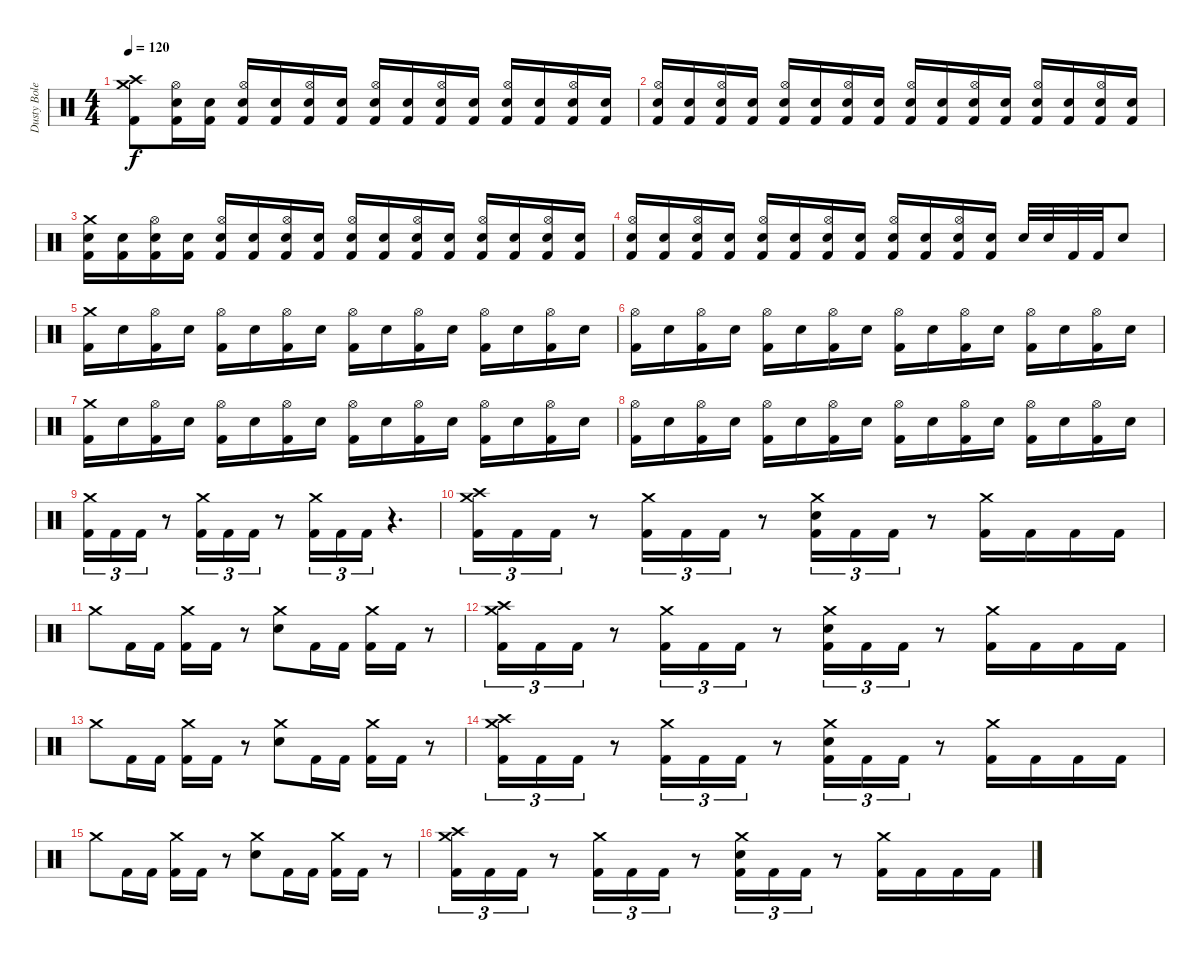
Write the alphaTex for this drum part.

\track ("Dusty Boles" "Dusty Bole") {instrument percussion}
\staff {score}
\articulation defaults
\ts (4 4)
\tempo 120
\clef neutral
\ks c
("Crash high (hit)" "Crash medium (hit)" "Kick (hit) 2").8{dy f} ("Hi-Hat (open)" "Electric Snare (hit)" "Kick (hit) 2").16 ("Electric Snare (hit)" "Kick (hit) 2").16 ("Hi-Hat (open)" "Electric Snare (hit)" "Kick (hit) 2").16 ("Electric Snare (hit)" "Kick (hit) 2").16 ("Hi-Hat (open)" "Electric Snare (hit)" "Kick (hit) 2").16 ("Electric Snare (hit)" "Kick (hit) 2").16 ("Hi-Hat (open)" "Electric Snare (hit)" "Kick (hit) 2").16 ("Electric Snare (hit)" "Kick (hit) 2").16 ("Hi-Hat (open)" "Electric Snare (hit)" "Kick (hit) 2").16 ("Electric Snare (hit)" "Kick (hit) 2").16 ("Hi-Hat (open)" "Electric Snare (hit)" "Kick (hit) 2").16 ("Electric Snare (hit)" "Kick (hit) 2").16 ("Hi-Hat (open)" "Electric Snare (hit)" "Kick (hit) 2").16 ("Electric Snare (hit)" "Kick (hit) 2").16 |
("Hi-Hat (open)" "Electric Snare (hit)" "Kick (hit) 2").16 ("Electric Snare (hit)" "Kick (hit) 2").16 ("Hi-Hat (open)" "Electric Snare (hit)" "Kick (hit) 2").16 ("Electric Snare (hit)" "Kick (hit) 2").16 ("Hi-Hat (open)" "Electric Snare (hit)" "Kick (hit) 2").16 ("Electric Snare (hit)" "Kick (hit) 2").16 ("Hi-Hat (open)" "Electric Snare (hit)" "Kick (hit) 2").16 ("Electric Snare (hit)" "Kick (hit) 2").16 ("Hi-Hat (open)" "Electric Snare (hit)" "Kick (hit) 2").16 ("Electric Snare (hit)" "Kick (hit) 2").16 ("Hi-Hat (open)" "Electric Snare (hit)" "Kick (hit) 2").16 ("Electric Snare (hit)" "Kick (hit) 2").16 ("Hi-Hat (open)" "Electric Snare (hit)" "Kick (hit) 2").16 ("Electric Snare (hit)" "Kick (hit) 2").16 ("Hi-Hat (open)" "Electric Snare (hit)" "Kick (hit) 2").16 ("Electric Snare (hit)" "Kick (hit) 2").16 |
("Crash medium (hit)" "Electric Snare (hit)" "Kick (hit) 2").16 ("Electric Snare (hit)" "Kick (hit) 2").16 ("Hi-Hat (open)" "Electric Snare (hit)" "Kick (hit) 2").16 ("Electric Snare (hit)" "Kick (hit) 2").16 ("Hi-Hat (open)" "Electric Snare (hit)" "Kick (hit) 2").16 ("Electric Snare (hit)" "Kick (hit) 2").16 ("Hi-Hat (open)" "Electric Snare (hit)" "Kick (hit) 2").16 ("Electric Snare (hit)" "Kick (hit) 2").16 ("Hi-Hat (open)" "Electric Snare (hit)" "Kick (hit) 2").16 ("Electric Snare (hit)" "Kick (hit) 2").16 ("Hi-Hat (open)" "Electric Snare (hit)" "Kick (hit) 2").16 ("Electric Snare (hit)" "Kick (hit) 2").16 ("Hi-Hat (open)" "Electric Snare (hit)" "Kick (hit) 2").16 ("Electric Snare (hit)" "Kick (hit) 2").16 ("Hi-Hat (open)" "Electric Snare (hit)" "Kick (hit) 2").16 ("Electric Snare (hit)" "Kick (hit) 2").16 |
("Hi-Hat (open)" "Electric Snare (hit)" "Kick (hit) 2").16 ("Electric Snare (hit)" "Kick (hit) 2").16 ("Hi-Hat (open)" "Electric Snare (hit)" "Kick (hit) 2").16 ("Electric Snare (hit)" "Kick (hit) 2").16 ("Hi-Hat (open)" "Electric Snare (hit)" "Kick (hit) 2").16 ("Electric Snare (hit)" "Kick (hit) 2").16 ("Hi-Hat (open)" "Electric Snare (hit)" "Kick (hit) 2").16 ("Electric Snare (hit)" "Kick (hit) 2").16 ("Hi-Hat (open)" "Electric Snare (hit)" "Kick (hit) 2").16 ("Electric Snare (hit)" "Kick (hit) 2").16 ("Hi-Hat (open)" "Electric Snare (hit)" "Kick (hit) 2").16 ("Electric Snare (hit)" "Kick (hit) 2").16 "Electric Snare (hit)".32 "Electric Snare (hit)".32 "Kick (hit) 2".32 "Kick (hit) 2".32 "Electric Snare (hit)".8 |
("Crash medium (hit)" "Kick (hit) 2").16 "Electric Snare (hit)".16 ("Hi-Hat (open)" "Kick (hit) 2").16 "Electric Snare (hit)".16 ("Hi-Hat (open)" "Kick (hit) 2").16 "Electric Snare (hit)".16 ("Hi-Hat (open)" "Kick (hit) 2").16 "Electric Snare (hit)".16 ("Hi-Hat (open)" "Kick (hit) 2").16 "Electric Snare (hit)".16 ("Hi-Hat (open)" "Kick (hit) 2").16 "Electric Snare (hit)".16 ("Hi-Hat (open)" "Kick (hit) 2").16 "Electric Snare (hit)".16 ("Hi-Hat (open)" "Kick (hit) 2").16 "Electric Snare (hit)".16 |
("Hi-Hat (open)" "Kick (hit) 2").16 "Electric Snare (hit)".16 ("Hi-Hat (open)" "Kick (hit) 2").16 "Electric Snare (hit)".16 ("Hi-Hat (open)" "Kick (hit) 2").16 "Electric Snare (hit)".16 ("Hi-Hat (open)" "Kick (hit) 2").16 "Electric Snare (hit)".16 ("Hi-Hat (open)" "Kick (hit) 2").16 "Electric Snare (hit)".16 ("Hi-Hat (open)" "Kick (hit) 2").16 "Electric Snare (hit)".16 ("Hi-Hat (open)" "Kick (hit) 2").16 "Electric Snare (hit)".16 ("Hi-Hat (open)" "Kick (hit) 2").16 "Electric Snare (hit)".16 |
("Crash medium (hit)" "Kick (hit) 2").16 "Electric Snare (hit)".16 ("Hi-Hat (open)" "Kick (hit) 2").16 "Electric Snare (hit)".16 ("Hi-Hat (open)" "Kick (hit) 2").16 "Electric Snare (hit)".16 ("Hi-Hat (open)" "Kick (hit) 2").16 "Electric Snare (hit)".16 ("Hi-Hat (open)" "Kick (hit) 2").16 "Electric Snare (hit)".16 ("Hi-Hat (open)" "Kick (hit) 2").16 "Electric Snare (hit)".16 ("Hi-Hat (open)" "Kick (hit) 2").16 "Electric Snare (hit)".16 ("Hi-Hat (open)" "Kick (hit) 2").16 "Electric Snare (hit)".16 |
("Hi-Hat (open)" "Kick (hit) 2").16 "Electric Snare (hit)".16 ("Hi-Hat (open)" "Kick (hit) 2").16 "Electric Snare (hit)".16 ("Hi-Hat (open)" "Kick (hit) 2").16 "Electric Snare (hit)".16 ("Hi-Hat (open)" "Kick (hit) 2").16 "Electric Snare (hit)".16 ("Hi-Hat (open)" "Kick (hit) 2").16 "Electric Snare (hit)".16 ("Hi-Hat (open)" "Kick (hit) 2").16 "Electric Snare (hit)".16 ("Hi-Hat (open)" "Kick (hit) 2").16 "Electric Snare (hit)".16 ("Hi-Hat (open)" "Kick (hit) 2").16 "Electric Snare (hit)".16 |
("Crash medium (hit)" "Kick (hit) 2").16{tu (3 2)} "Kick (hit) 2".16{tu (3 2)} "Kick (hit) 2".16{tu (3 2)} r.8{volume 0} ("Crash medium (hit)" "Kick (hit) 2").16{tu (3 2) volume 16} "Kick (hit) 2".16{tu (3 2)} "Kick (hit) 2".16{tu (3 2)} r.8{volume 0} ("Crash medium (hit)" "Kick (hit) 2").16{tu (3 2) volume 16} "Kick (hit) 2".16{tu (3 2)} "Kick (hit) 2".16{tu (3 2)} r.4{d volume 0} |
("Crash high (hit)" "Crash medium (hit)" "Kick (hit) 2").16{tu (3 2) volume 16} "Kick (hit) 2".16{tu (3 2)} "Kick (hit) 2".16{tu (3 2)} r.8 ("Crash medium (hit)" "Kick (hit) 2").16{tu (3 2)} "Kick (hit) 2".16{tu (3 2)} "Kick (hit) 2".16{tu (3 2)} r.8 ("Crash medium (hit)" "Electric Snare (hit)" "Kick (hit) 2").16{tu (3 2)} "Kick (hit) 2".16{tu (3 2)} "Kick (hit) 2".16{tu (3 2)} r.8 ("Crash medium (hit)" "Kick (hit) 2").16 "Kick (hit) 2".16 "Kick (hit) 2".16 "Kick (hit) 2".16 |
"Crash medium (hit)".8 "Kick (hit) 2".16 "Kick (hit) 2".16 ("Crash medium (hit)" "Kick (hit) 2").16 "Kick (hit) 2".16 r.8 ("Crash medium (hit)" "Electric Snare (hit)").8 "Kick (hit) 2".16 "Kick (hit) 2".16 ("Crash medium (hit)" "Kick (hit) 2").16 "Kick (hit) 2".16 r.8 |
("Crash high (hit)" "Crash medium (hit)" "Kick (hit) 2").16{tu (3 2) volume 16} "Kick (hit) 2".16{tu (3 2)} "Kick (hit) 2".16{tu (3 2)} r.8 ("Crash medium (hit)" "Kick (hit) 2").16{tu (3 2)} "Kick (hit) 2".16{tu (3 2)} "Kick (hit) 2".16{tu (3 2)} r.8 ("Crash medium (hit)" "Electric Snare (hit)" "Kick (hit) 2").16{tu (3 2)} "Kick (hit) 2".16{tu (3 2)} "Kick (hit) 2".16{tu (3 2)} r.8 ("Crash medium (hit)" "Kick (hit) 2").16 "Kick (hit) 2".16 "Kick (hit) 2".16 "Kick (hit) 2".16 |
"Crash medium (hit)".8 "Kick (hit) 2".16 "Kick (hit) 2".16 ("Crash medium (hit)" "Kick (hit) 2").16 "Kick (hit) 2".16 r.8 ("Crash medium (hit)" "Electric Snare (hit)").8 "Kick (hit) 2".16 "Kick (hit) 2".16 ("Crash medium (hit)" "Kick (hit) 2").16 "Kick (hit) 2".16 r.8 |
("Crash high (hit)" "Crash medium (hit)" "Kick (hit) 2").16{tu (3 2) volume 16} "Kick (hit) 2".16{tu (3 2)} "Kick (hit) 2".16{tu (3 2)} r.8 ("Crash medium (hit)" "Kick (hit) 2").16{tu (3 2)} "Kick (hit) 2".16{tu (3 2)} "Kick (hit) 2".16{tu (3 2)} r.8 ("Crash medium (hit)" "Electric Snare (hit)" "Kick (hit) 2").16{tu (3 2)} "Kick (hit) 2".16{tu (3 2)} "Kick (hit) 2".16{tu (3 2)} r.8 ("Crash medium (hit)" "Kick (hit) 2").16 "Kick (hit) 2".16 "Kick (hit) 2".16 "Kick (hit) 2".16 |
"Crash medium (hit)".8 "Kick (hit) 2".16 "Kick (hit) 2".16 ("Crash medium (hit)" "Kick (hit) 2").16 "Kick (hit) 2".16 r.8 ("Crash medium (hit)" "Electric Snare (hit)").8 "Kick (hit) 2".16 "Kick (hit) 2".16 ("Crash medium (hit)" "Kick (hit) 2").16 "Kick (hit) 2".16 r.8 |
("Crash high (hit)" "Crash medium (hit)" "Kick (hit) 2").16{tu (3 2) volume 16} "Kick (hit) 2".16{tu (3 2)} "Kick (hit) 2".16{tu (3 2)} r.8 ("Crash medium (hit)" "Kick (hit) 2").16{tu (3 2)} "Kick (hit) 2".16{tu (3 2)} "Kick (hit) 2".16{tu (3 2)} r.8 ("Crash medium (hit)" "Electric Snare (hit)" "Kick (hit) 2").16{tu (3 2)} "Kick (hit) 2".16{tu (3 2)} "Kick (hit) 2".16{tu (3 2)} r.8 ("Crash medium (hit)" "Kick (hit) 2").16 "Kick (hit) 2".16 "Kick (hit) 2".16 "Kick (hit) 2".16
